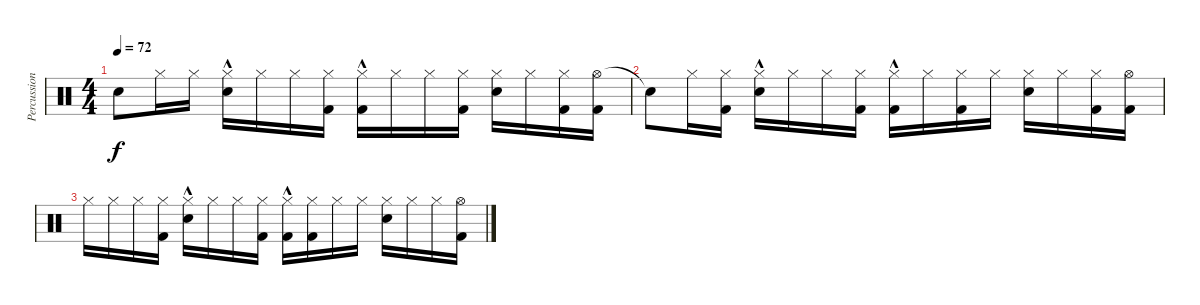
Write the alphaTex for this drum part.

\track ("Percussions" "Percussion") {instrument percussion}
\staff {score}
\articulation defaults
\ts (4 4)
\tempo 72
\clef neutral
\ks c "Snare (hit)"{t}.8{dy f} "Hi-Hat (closed)".16 "Hi-Hat (closed)".16
("Hi-Hat (closed)" "Electric Snare (hit)"{hac}).16 "Hi-Hat (closed)".16 "Hi-Hat (closed)".16 ("Hi-Hat (closed)" "Kick (hit) 2").16 ("Hi-Hat (closed)" "Kick (hit) 2"{hac}).16 "Hi-Hat (closed)".16 "Hi-Hat (closed)".16 ("Hi-Hat (closed)" "Kick (hit) 2").16 ("Hi-Hat (closed)" "Electric Snare (hit)").16 "Hi-Hat (closed)".16 ("Hi-Hat (closed)" "Kick (hit) 2").16 ("Hi-Hat (open)" "Kick (hit) 2").16 |
"Snare (hit)"{t}.8 "Hi-Hat (closed)".16 ("Hi-Hat (closed)" "Kick (hit) 2").16 ("Hi-Hat (closed)" "Electric Snare (hit)"{hac}).16 "Hi-Hat (closed)".16 "Hi-Hat (closed)".16 ("Hi-Hat (closed)" "Kick (hit) 2").16 ("Hi-Hat (closed)" "Kick (hit) 2"{hac}).16 "Hi-Hat (closed)".16 ("Hi-Hat (closed)" "Kick (hit) 2").16 "Hi-Hat (closed)".16 ("Hi-Hat (closed)" "Electric Snare (hit)").16 "Hi-Hat (closed)".16 ("Hi-Hat (closed)" "Kick (hit) 2").16 ("Hi-Hat (open)" "Kick (hit) 2").16 |
"Hi-Hat (closed)".16 "Hi-Hat (closed)".16 "Hi-Hat (closed)".16 ("Hi-Hat (closed)" "Kick (hit) 2").16 ("Hi-Hat (closed)" "Electric Snare (hit)"{hac}).16 "Hi-Hat (closed)".16 "Hi-Hat (closed)".16 ("Hi-Hat (closed)" "Kick (hit) 2").16 ("Hi-Hat (closed)" "Kick (hit) 2"{hac}).16 ("Hi-Hat (closed)" "Kick (hit) 2").16 "Hi-Hat (closed)".16 "Hi-Hat (closed)".16 ("Hi-Hat (closed)" "Electric Snare (hit)").16 "Hi-Hat (closed)".16 "Hi-Hat (closed)".16 ("Hi-Hat (open)" "Kick (hit) 2").16
